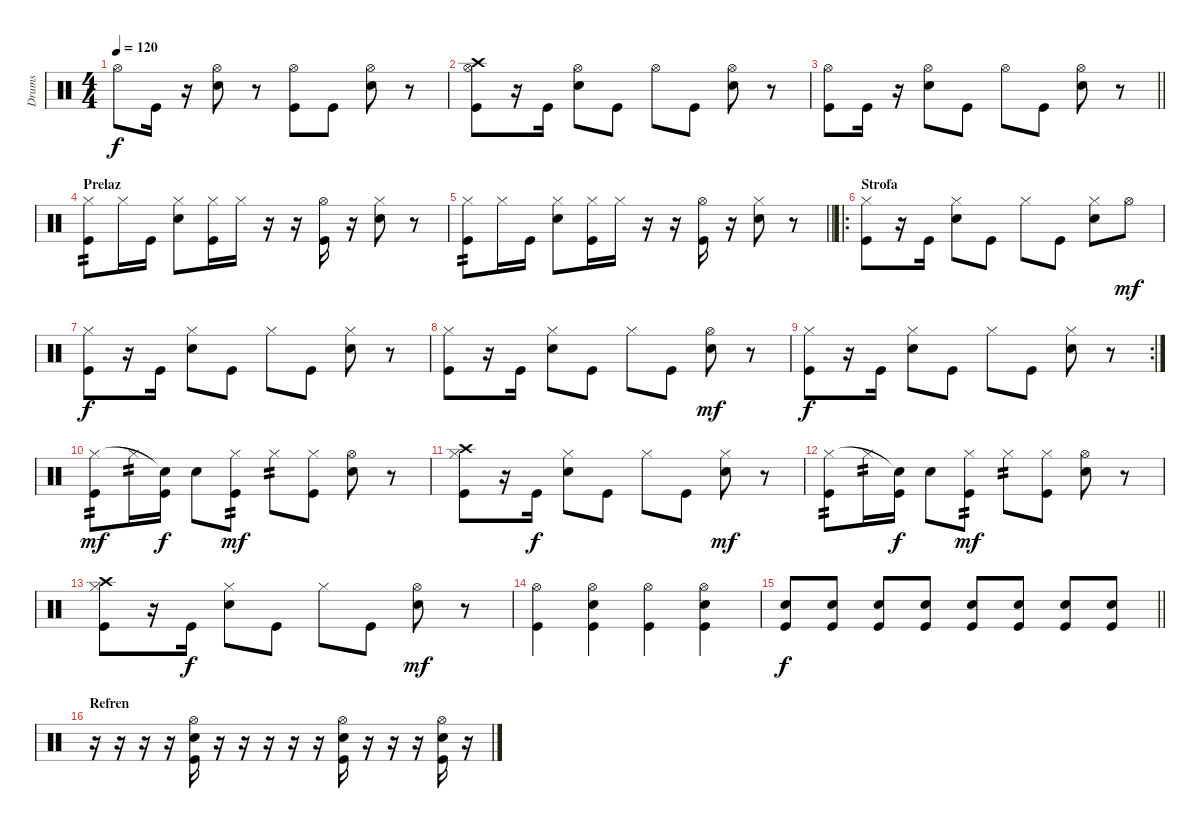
\track ("Drums" "Drums") {instrument percussion}
\staff {score}
\articulation defaults
\ts (4 4)
\tempo 120
\clef neutral
\ks c "Hi-Hat (open)".8{dy f} "Kick (hit)".16
r.16 ("Snare (hit) 2" "Hi-Hat (open)").8 r.8 ("Kick (hit)" "Hi-Hat (open)").8 "Kick (hit)".8 ("Snare (hit) 2" "Hi-Hat (open)").8 r.8 |
("Kick (hit)" "Hi-Hat (open)" "Crash high (hit)").8 r.16 "Kick (hit)".16 ("Snare (hit) 2" "Hi-Hat (open)").8 "Kick (hit)".8 "Hi-Hat (open)".8 "Kick (hit)".8 ("Snare (hit) 2" "Hi-Hat (open)").8 r.8 |
\barLineRight lightlight
("Kick (hit)" "Hi-Hat (open)").8 "Kick (hit)".16 r.16 ("Snare (hit) 2" "Hi-Hat (open)").8 "Kick (hit)".8 "Hi-Hat (open)".8 "Kick (hit)".8 ("Snare (hit) 2" "Hi-Hat (open)").8 r.8 |
\section ("" "Prelaz")
("Kick (hit)" "Hi-Hat (closed)").8{tp 2} "Hi-Hat (closed)".16 "Kick (hit)".16 ("Snare (hit) 2" "Hi-Hat (closed)").8 ("Kick (hit)" "Hi-Hat (closed)").16 "Hi-Hat (closed)".16 r.16 r.16 ("Kick (hit)" "Hi-Hat (open)").16 r.16 ("Snare (hit) 2" "Hi-Hat (closed)").8 r.8 |
\barLineRight lightlight
("Kick (hit)" "Hi-Hat (closed)").8{tp 2} "Hi-Hat (closed)".16 "Kick (hit)".16 ("Snare (hit) 2" "Hi-Hat (closed)").8 ("Kick (hit)" "Hi-Hat (closed)").16 "Hi-Hat (closed)".16 r.16 r.16 ("Kick (hit)" "Hi-Hat (open)").16 r.16 ("Snare (hit) 2" "Hi-Hat (closed)").8 r.8 |
\ro
\section ("" "Strofa")
("Kick (hit)" "Hi-Hat (closed)").8 r.16 "Kick (hit)".16 ("Snare (hit) 2" "Hi-Hat (closed)").8 "Kick (hit)".8 "Hi-Hat (closed)".8 "Kick (hit)".8 ("Snare (hit) 2" "Hi-Hat (closed)").8 "Hi-Hat (open)".8{dy mf} |
("Kick (hit)" "Hi-Hat (closed)").8{dy f} r.16 "Kick (hit)".16 ("Snare (hit) 2" "Hi-Hat (closed)").8 "Kick (hit)".8 "Hi-Hat (closed)".8 "Kick (hit)".8 ("Snare (hit) 2" "Hi-Hat (closed)").8 r.8 |
("Kick (hit)" "Hi-Hat (closed)").8 r.16 "Kick (hit)".16 ("Snare (hit) 2" "Hi-Hat (closed)").8 "Kick (hit)".8 "Hi-Hat (closed)".8 "Kick (hit)".8 ("Snare (hit) 2" "Hi-Hat (open)").8{dy mf} r.8 |
\rc 2
("Kick (hit)" "Hi-Hat (closed)").8{dy f} r.16 "Kick (hit)".16 ("Snare (hit) 2" "Hi-Hat (closed)").8 "Kick (hit)".8 "Hi-Hat (closed)".8 "Kick (hit)".8 ("Snare (hit) 2" "Hi-Hat (closed)").8 r.8 |
("Kick (hit)" "Hi-Hat (closed)").8{tp 2 dy mf} "Hi-Hat (closed)".16{tp 2} ("Kick (hit)" "Snare (hit)"{t}).16{dy f} "Snare (hit) 2".8 ("Kick (hit)" "Hi-Hat (closed)").8{tp 2 dy mf} "Hi-Hat (closed)".8{tp 2} ("Kick (hit)" "Hi-Hat (closed)").8 ("Snare (hit) 2" "Hi-Hat (open)").8 r.8 |
("Kick (hit)" "Hi-Hat (closed)" "Crash high (hit)").8 r.16 "Kick (hit)".16{dy f} ("Snare (hit) 2" "Hi-Hat (closed)").8 "Kick (hit)".8 "Hi-Hat (closed)".8 "Kick (hit)".8 ("Snare (hit) 2" "Hi-Hat (closed)").8{dy mf} r.8 |
("Kick (hit)" "Hi-Hat (closed)").8{tp 2} "Hi-Hat (closed)".16{tp 2} ("Kick (hit)" "Snare (hit)"{t}).16{dy f} "Snare (hit) 2".8 ("Kick (hit)" "Hi-Hat (closed)").8{tp 2 dy mf} "Hi-Hat (closed)".8{tp 2} ("Kick (hit)" "Hi-Hat (closed)").8 ("Snare (hit) 2" "Hi-Hat (open)").8 r.8 |
("Kick (hit)" "Hi-Hat (closed)" "Crash high (hit)").8 r.16 "Kick (hit)".16{dy f} ("Snare (hit) 2" "Hi-Hat (closed)").8 "Kick (hit)".8 "Hi-Hat (closed)".8 "Kick (hit)".8 ("Snare (hit) 2" "Hi-Hat (open)").8{dy mf} r.8 |
("Kick (hit)" "Hi-Hat (open)").4 ("Kick (hit)" "Snare (hit) 2" "Hi-Hat (open)").4 ("Kick (hit)" "Hi-Hat (open)").4 ("Kick (hit)" "Snare (hit) 2" "Hi-Hat (open)").4 |
\barLineRight lightlight
("Kick (hit)" "Snare (hit) 2").8{dy f} ("Kick (hit)" "Snare (hit) 2").8 ("Kick (hit)" "Snare (hit) 2").8 ("Kick (hit)" "Snare (hit) 2").8 ("Kick (hit)" "Snare (hit) 2").8 ("Kick (hit)" "Snare (hit) 2").8 ("Kick (hit)" "Snare (hit) 2").8 ("Kick (hit)" "Snare (hit) 2").8 |
\section ("" "Refren")
r.16 r.16 r.16 r.16 ("Kick (hit)" "Snare (hit) 2" "Hi-Hat (open)").16 r.16 r.16 r.16 r.16 r.16 ("Kick (hit)" "Snare (hit) 2" "Hi-Hat (open)").16 r.16 r.16 r.16 ("Kick (hit)" "Snare (hit) 2" "Hi-Hat (open)").16 r.16
